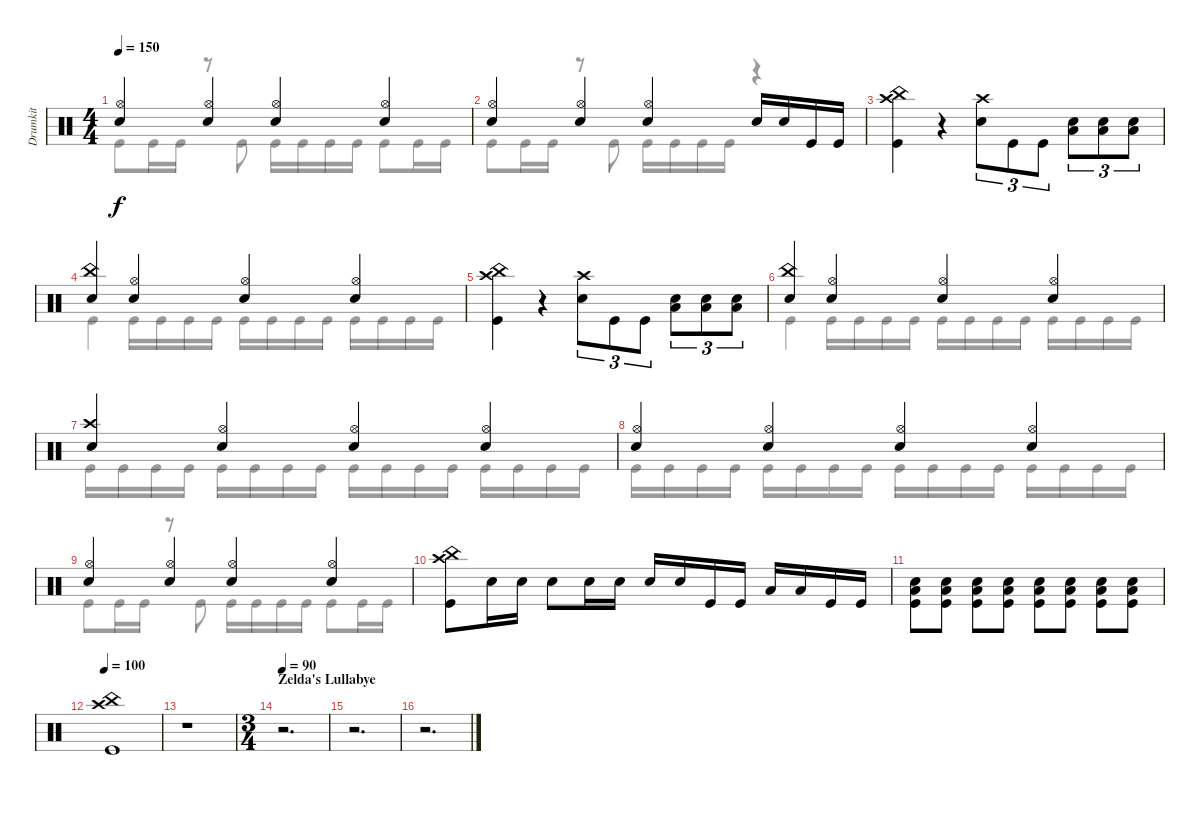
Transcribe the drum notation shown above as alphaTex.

\track ("Drumkit" "Drumkit") {instrument percussion}
\staff {score}
\articulation defaults
\voice
\ts (4 4)
\tempo 150
\clef neutral
\ks c
("Snare (hit) 2" "Hi-Hat (open)").4{dy f} ("Snare (hit) 2" "Hi-Hat (open)").4 ("Snare (hit) 2" "Hi-Hat (open)").4 ("Snare (hit) 2" "Hi-Hat (open)").4 |
("Snare (hit) 2" "Hi-Hat (open)").4 ("Snare (hit) 2" "Hi-Hat (open)").4 ("Snare (hit) 2" "Hi-Hat (open)").4 "Snare (hit) 2".16 "Snare (hit) 2".16 "Kick (hit)".16 "Kick (hit)".16 |
("Kick (hit)" "Crash high (hit)" "China (hit)").4 r.4 ("Snare (hit) 2" "Crash high (hit)").8{tu (3 2)} "Kick (hit)".8{tu (3 2)} "Kick (hit)".8{tu (3 2)} ("Snare (hit) 2" "Low Floor Tom (hit)").8{tu (3 2)} ("Snare (hit) 2" "Low Floor Tom (hit)").8{tu (3 2)} ("Snare (hit) 2" "Low Floor Tom (hit)").8{tu (3 2)} |
("Snare (hit) 2" "China (hit)").4 ("Snare (hit) 2" "Hi-Hat (open)").4 ("Snare (hit) 2" "Hi-Hat (open)").4 ("Snare (hit) 2" "Hi-Hat (open)").4 |
("Kick (hit)" "Crash high (hit)" "China (hit)").4 r.4 ("Snare (hit) 2" "Crash high (hit)").8{tu (3 2)} "Kick (hit)".8{tu (3 2)} "Kick (hit)".8{tu (3 2)} ("Snare (hit) 2" "Low Floor Tom (hit)").8{tu (3 2)} ("Snare (hit) 2" "Low Floor Tom (hit)").8{tu (3 2)} ("Snare (hit) 2" "Low Floor Tom (hit)").8{tu (3 2)} |
("Snare (hit) 2" "China (hit)").4 ("Snare (hit) 2" "Hi-Hat (open)").4 ("Snare (hit) 2" "Hi-Hat (open)").4 ("Snare (hit) 2" "Hi-Hat (open)").4 |
("Snare (hit) 2" "Crash high (hit)").4 ("Snare (hit) 2" "Hi-Hat (open)").4 ("Snare (hit) 2" "Hi-Hat (open)").4 ("Snare (hit) 2" "Hi-Hat (open)").4 |
("Snare (hit) 2" "Hi-Hat (open)").4 ("Snare (hit) 2" "Hi-Hat (open)").4 ("Snare (hit) 2" "Hi-Hat (open)").4 ("Snare (hit) 2" "Hi-Hat (open)").4 |
("Snare (hit) 2" "Hi-Hat (open)").4 ("Snare (hit) 2" "Hi-Hat (open)").4 ("Snare (hit) 2" "Hi-Hat (open)").4 ("Snare (hit) 2" "Hi-Hat (open)").4 |
("Kick (hit)" "China (hit)" "Crash high (hit)").8 "Snare (hit) 2".16 "Snare (hit) 2".16 "Snare (hit) 2".8 "Snare (hit) 2".16 "Snare (hit) 2".16 "Snare (hit) 2".16 "Snare (hit) 2".16 "Kick (hit)".16 "Kick (hit)".16 "Low Tom (hit)".16 "Low Tom (hit)".16 "Kick (hit)".16 "Kick (hit)".16 |
("Kick (hit)" "Snare (hit) 2" "Low Floor Tom (hit)").8 ("Kick (hit)" "Snare (hit) 2" "Low Floor Tom (hit)").8 ("Kick (hit)" "Snare (hit) 2" "Low Floor Tom (hit)").8 ("Kick (hit)" "Snare (hit) 2" "Low Floor Tom (hit)").8 ("Kick (hit)" "Snare (hit) 2" "Low Floor Tom (hit)").8 ("Kick (hit)" "Snare (hit) 2" "Low Floor Tom (hit)").8 ("Kick (hit)" "Snare (hit) 2" "Low Floor Tom (hit)").8 ("Kick (hit)" "Snare (hit) 2" "Low Floor Tom (hit)").8 |
\tempo 100
("Kick (hit)" "Crash high (hit)" "China (hit)").1 |
r.1 |
\ts (3 4)
\section ("" "Zelda's Lullabye")
\tempo 90
r.2{d} |
r.2{d} |
r.2{d}
\voice
\clef neutral
\ottava regular
\simile none
\ks c "Kick (hit)".8{dy f} "Kick (hit)".16 "Kick (hit)".16
r.8 "Kick (hit)".8 "Kick (hit)".16 "Kick (hit)".16 "Kick (hit)".16 "Kick (hit)".16 "Kick (hit)".8 "Kick (hit)".16 "Kick (hit)".16 |
"Kick (hit)".8 "Kick (hit)".16 "Kick (hit)".16 r.8 "Kick (hit)".8 "Kick (hit)".16 "Kick (hit)".16 "Kick (hit)".16 "Kick (hit)".16 r.4 |
|
"Kick (hit)".4 "Kick (hit)".16 "Kick (hit)".16 "Kick (hit)".16 "Kick (hit)".16 "Kick (hit)".16 "Kick (hit)".16 "Kick (hit)".16 "Kick (hit)".16 "Kick (hit)".16 "Kick (hit)".16 "Kick (hit)".16 "Kick (hit)".16 |
|
"Kick (hit)".4 "Kick (hit)".16 "Kick (hit)".16 "Kick (hit)".16 "Kick (hit)".16 "Kick (hit)".16 "Kick (hit)".16 "Kick (hit)".16 "Kick (hit)".16 "Kick (hit)".16 "Kick (hit)".16 "Kick (hit)".16 "Kick (hit)".16 |
"Kick (hit)".16 "Kick (hit)".16 "Kick (hit)".16 "Kick (hit)".16 "Kick (hit)".16 "Kick (hit)".16 "Kick (hit)".16 "Kick (hit)".16 "Kick (hit)".16 "Kick (hit)".16 "Kick (hit)".16 "Kick (hit)".16 "Kick (hit)".16 "Kick (hit)".16 "Kick (hit)".16 "Kick (hit)".16 |
"Kick (hit)".16 "Kick (hit)".16 "Kick (hit)".16 "Kick (hit)".16 "Kick (hit)".16 "Kick (hit)".16 "Kick (hit)".16 "Kick (hit)".16 "Kick (hit)".16 "Kick (hit)".16 "Kick (hit)".16 "Kick (hit)".16 "Kick (hit)".16 "Kick (hit)".16 "Kick (hit)".16 "Kick (hit)".16 |
"Kick (hit)".8 "Kick (hit)".16 "Kick (hit)".16 r.8 "Kick (hit)".8 "Kick (hit)".16 "Kick (hit)".16 "Kick (hit)".16 "Kick (hit)".16 "Kick (hit)".8 "Kick (hit)".16 "Kick (hit)".16 |
|
|
|
|
|
|
